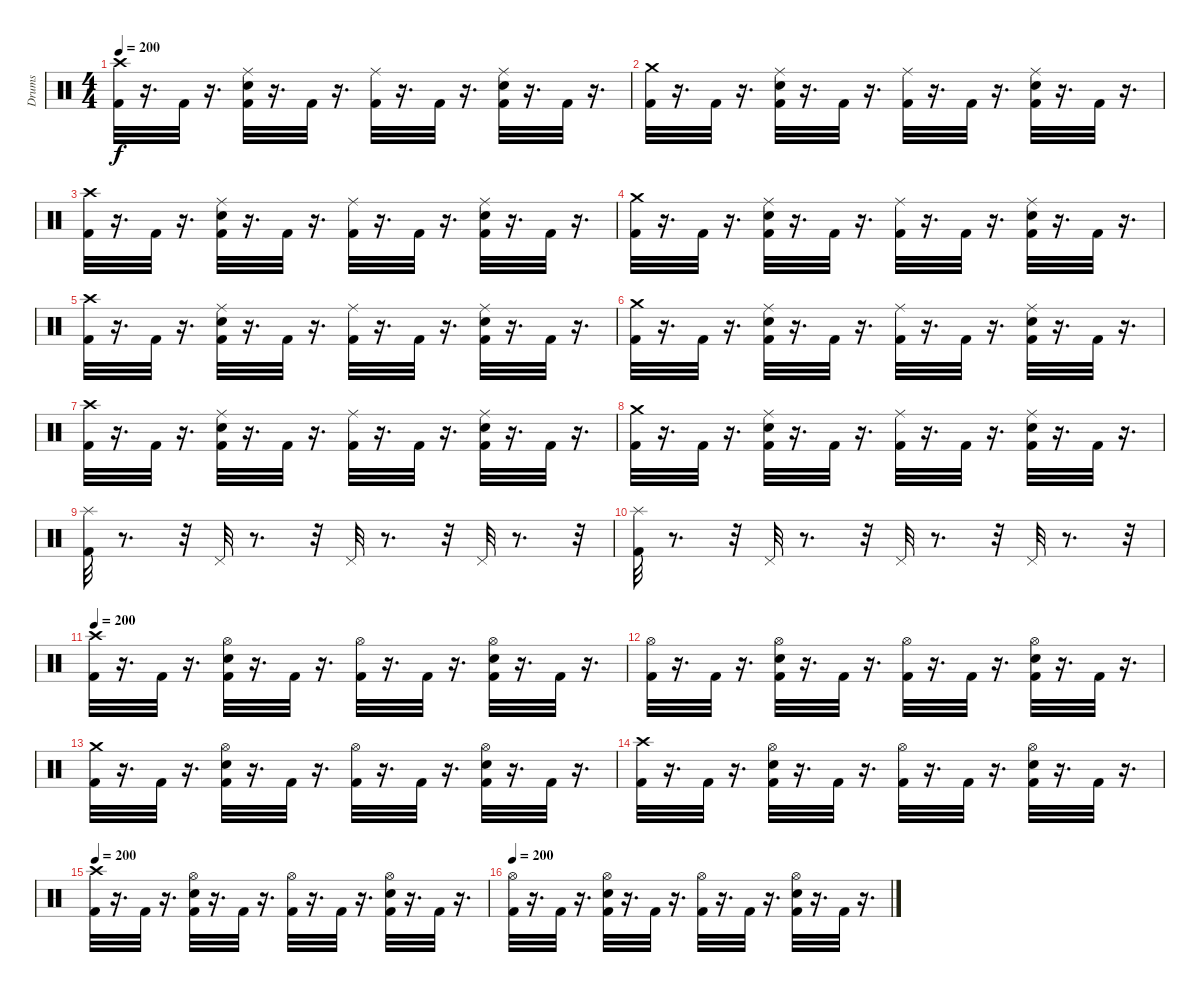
\track ("Drums" "Drums") {instrument percussion}
\staff {score}
\articulation defaults
\ts (4 4)
\tempo 200
\clef neutral
\ks c
("Crash high (hit)" "Kick (hit) 2").32{dy f} r.16{d} "Kick (hit) 2".32 r.16{d} ("Electric Snare (hit)" "Ride (middle)" "Kick (hit) 2").32 r.16{d} "Kick (hit) 2".32 r.16{d} ("Ride (middle)" "Kick (hit) 2").32 r.16{d} "Kick (hit) 2".32 r.16{d} ("Electric Snare (hit)" "Ride (middle)" "Kick (hit) 2").32 r.16{d} "Kick (hit) 2".32 r.16{d} |
("Kick (hit) 2" "Crash medium (hit)").32 r.16{d} "Kick (hit) 2".32 r.16{d} ("Kick (hit) 2" "Electric Snare (hit)" "Ride (middle)").32 r.16{d} "Kick (hit) 2".32 r.16{d} ("Kick (hit) 2" "Ride (middle)").32 r.16{d} "Kick (hit) 2".32 r.16{d} ("Kick (hit) 2" "Electric Snare (hit)" "Ride (middle)").32 r.16{d} "Kick (hit) 2".32 r.16{d} |
("Crash high (hit)" "Kick (hit) 2").32 r.16{d} "Kick (hit) 2".32 r.16{d} ("Electric Snare (hit)" "Ride (middle)" "Kick (hit) 2").32 r.16{d} "Kick (hit) 2".32 r.16{d} ("Ride (middle)" "Kick (hit) 2").32 r.16{d} "Kick (hit) 2".32 r.16{d} ("Electric Snare (hit)" "Ride (middle)" "Kick (hit) 2").32 r.16{d} "Kick (hit) 2".32 r.16{d} |
("Kick (hit) 2" "Crash medium (hit)").32 r.16{d} "Kick (hit) 2".32 r.16{d} ("Kick (hit) 2" "Electric Snare (hit)" "Ride (middle)").32 r.16{d} "Kick (hit) 2".32 r.16{d} ("Kick (hit) 2" "Ride (middle)").32 r.16{d} "Kick (hit) 2".32 r.16{d} ("Kick (hit) 2" "Electric Snare (hit)" "Ride (middle)").32 r.16{d} "Kick (hit) 2".32 r.16{d} |
("Crash high (hit)" "Kick (hit) 2").32 r.16{d} "Kick (hit) 2".32 r.16{d} ("Electric Snare (hit)" "Ride (middle)" "Kick (hit) 2").32 r.16{d} "Kick (hit) 2".32 r.16{d} ("Ride (middle)" "Kick (hit) 2").32 r.16{d} "Kick (hit) 2".32 r.16{d} ("Electric Snare (hit)" "Ride (middle)" "Kick (hit) 2").32 r.16{d} "Kick (hit) 2".32 r.16{d} |
("Kick (hit) 2" "Crash medium (hit)").32 r.16{d} "Kick (hit) 2".32 r.16{d} ("Kick (hit) 2" "Electric Snare (hit)" "Ride (middle)").32 r.16{d} "Kick (hit) 2".32 r.16{d} ("Kick (hit) 2" "Ride (middle)").32 r.16{d} "Kick (hit) 2".32 r.16{d} ("Kick (hit) 2" "Electric Snare (hit)" "Ride (middle)").32 r.16{d} "Kick (hit) 2".32 r.16{d} |
("Crash high (hit)" "Kick (hit) 2").32 r.16{d} "Kick (hit) 2".32 r.16{d} ("Electric Snare (hit)" "Ride (middle)" "Kick (hit) 2").32 r.16{d} "Kick (hit) 2".32 r.16{d} ("Ride (middle)" "Kick (hit) 2").32 r.16{d} "Kick (hit) 2".32 r.16{d} ("Electric Snare (hit)" "Ride (middle)" "Kick (hit) 2").32 r.16{d} "Kick (hit) 2".32 r.16{d} |
("Kick (hit) 2" "Crash medium (hit)").32 r.16{d} "Kick (hit) 2".32 r.16{d} ("Kick (hit) 2" "Electric Snare (hit)" "Ride (middle)").32 r.16{d} "Kick (hit) 2".32 r.16{d} ("Kick (hit) 2" "Ride (middle)").32 r.16{d} "Kick (hit) 2".32 r.16{d} ("Kick (hit) 2" "Electric Snare (hit)" "Ride (middle)").32 r.16{d} "Kick (hit) 2".32 r.16{d} |
("Splash (hit)" "Kick (hit) 2").32 r.8{d} r.32 "Pedal Hi-Hat (hit)".32 r.8{d} r.32 "Pedal Hi-Hat (hit)".32 r.8{d} r.32 "Pedal Hi-Hat (hit)".32 r.8{d} r.32 |
("Splash (hit)" "Kick (hit) 2").32 r.8{d} r.32 "Pedal Hi-Hat (hit)".32 r.8{d} r.32 "Pedal Hi-Hat (hit)".32 r.8{d} r.32 "Pedal Hi-Hat (hit)".32 r.8{d} r.32 |
\tempo 200
("Crash high (hit)" "Kick (hit) 2").32 r.16{d} "Kick (hit) 2".32 r.16{d} ("Hi-Hat (open)" "Electric Snare (hit)" "Kick (hit) 2").32 r.16{d} "Kick (hit) 2".32 r.16{d} ("Hi-Hat (open)" "Kick (hit) 2").32 r.16{d} "Kick (hit) 2".32 r.16{d} ("Hi-Hat (open)" "Electric Snare (hit)" "Kick (hit) 2").32 r.16{d} "Kick (hit) 2".32 r.16{d} |
("Hi-Hat (open)" "Kick (hit) 2").32 r.16{d} "Kick (hit) 2".32 r.16{d} ("Hi-Hat (open)" "Electric Snare (hit)" "Kick (hit) 2").32 r.16{d} "Kick (hit) 2".32 r.16{d} ("Hi-Hat (open)" "Kick (hit) 2").32 r.16{d} "Kick (hit) 2".32 r.16{d} ("Hi-Hat (open)" "Electric Snare (hit)" "Kick (hit) 2").32 r.16{d} "Kick (hit) 2".32 r.16{d} |
("Kick (hit) 2" "Crash medium (hit)").32 r.16{d} "Kick (hit) 2".32 r.16{d} ("Kick (hit) 2" "Electric Snare (hit)" "Hi-Hat (open)").32 r.16{d} "Kick (hit) 2".32 r.16{d} ("Kick (hit) 2" "Hi-Hat (open)").32 r.16{d} "Kick (hit) 2".32 r.16{d} ("Kick (hit) 2" "Hi-Hat (open)" "Electric Snare (hit)").32 r.16{d} "Kick (hit) 2".32 r.16{d} |
("Kick (hit) 2" "Crash high (hit)").32 r.16{d} "Kick (hit) 2".32 r.16{d} ("Kick (hit) 2" "Electric Snare (hit)" "Hi-Hat (open)").32 r.16{d} "Kick (hit) 2".32 r.16{d} ("Hi-Hat (open)" "Kick (hit) 2").32 r.16{d} "Kick (hit) 2".32 r.16{d} ("Kick (hit) 2" "Electric Snare (hit)" "Hi-Hat (open)").32 r.16{d} "Kick (hit) 2".32 r.16{d} |
\tempo 200
("Crash high (hit)" "Kick (hit) 2").32 r.16{d} "Kick (hit) 2".32 r.16{d} ("Hi-Hat (open)" "Electric Snare (hit)" "Kick (hit) 2").32 r.16{d} "Kick (hit) 2".32 r.16{d} ("Hi-Hat (open)" "Kick (hit) 2").32 r.16{d} "Kick (hit) 2".32 r.16{d} ("Hi-Hat (open)" "Electric Snare (hit)" "Kick (hit) 2").32 r.16{d} "Kick (hit) 2".32 r.16{d} |
\tempo 200
("Hi-Hat (open)" "Kick (hit) 2").32 r.16{d} "Kick (hit) 2".32 r.16{d} ("Hi-Hat (open)" "Electric Snare (hit)" "Kick (hit) 2").32 r.16{d} "Kick (hit) 2".32 r.16{d} ("Hi-Hat (open)" "Kick (hit) 2").32 r.16{d} "Kick (hit) 2".32 r.16{d} ("Hi-Hat (open)" "Electric Snare (hit)" "Kick (hit) 2").32 r.16{d} "Kick (hit) 2".32 r.16{d}
